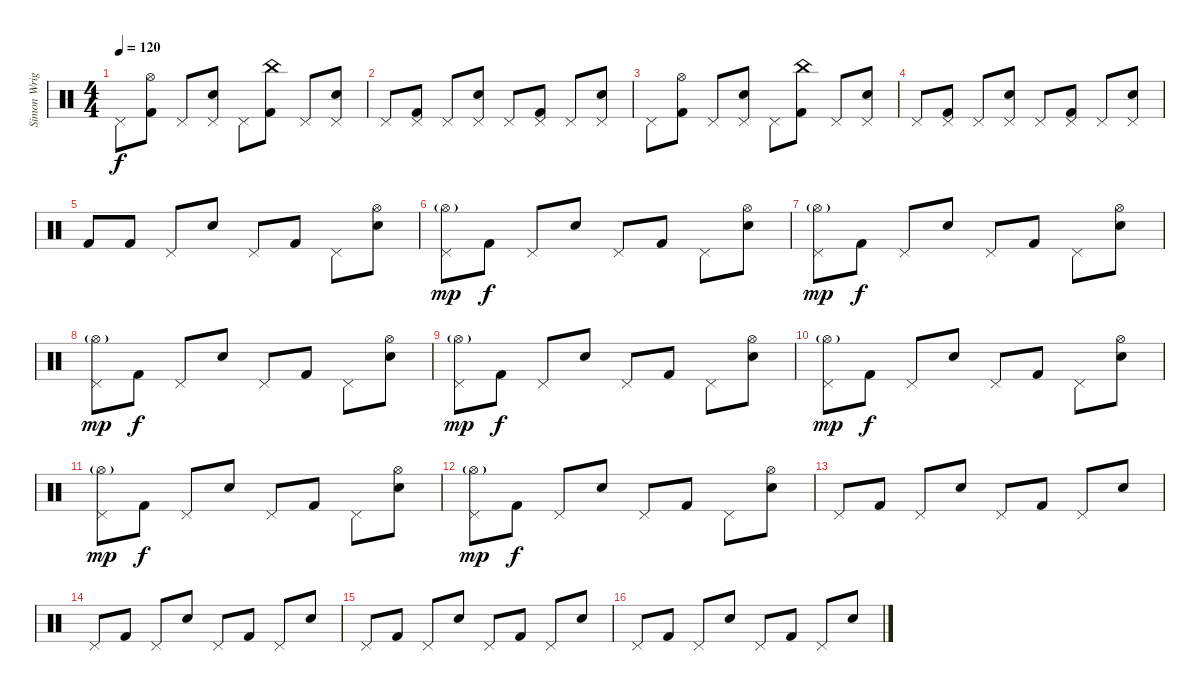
\track ("Simon Wright (i think)" "Simon Wrig") {instrument percussion}
\staff {score}
\articulation defaults
\ts (4 4)
\tempo 120
\clef neutral
\ks c "Pedal Hi-Hat (hit)".8{dy f}
("Kick (hit) 2" "Hi-Hat (open)").8 "Pedal Hi-Hat (hit)".8 ("Snare (hit) 2" "Pedal Hi-Hat (hit)").8 "Pedal Hi-Hat (hit)".8 ("Kick (hit) 2" "China (hit)").8 "Pedal Hi-Hat (hit)".8 ("Snare (hit) 2" "Pedal Hi-Hat (hit)").8 |
"Pedal Hi-Hat (hit)".8 ("Kick (hit) 2" "Pedal Hi-Hat (hit)").8 "Pedal Hi-Hat (hit)".8 ("Snare (hit) 2" "Pedal Hi-Hat (hit)").8 "Pedal Hi-Hat (hit)".8 ("Kick (hit) 2" "Pedal Hi-Hat (hit)").8 "Pedal Hi-Hat (hit)".8 ("Snare (hit) 2" "Pedal Hi-Hat (hit)").8 |
"Pedal Hi-Hat (hit)".8 ("Kick (hit) 2" "Hi-Hat (open)").8 "Pedal Hi-Hat (hit)".8 ("Snare (hit) 2" "Pedal Hi-Hat (hit)").8 "Pedal Hi-Hat (hit)".8 ("Kick (hit) 2" "China (hit)").8 "Pedal Hi-Hat (hit)".8 ("Snare (hit) 2" "Pedal Hi-Hat (hit)").8 |
"Pedal Hi-Hat (hit)".8 ("Kick (hit) 2" "Pedal Hi-Hat (hit)").8 "Pedal Hi-Hat (hit)".8 ("Snare (hit) 2" "Pedal Hi-Hat (hit)").8 "Pedal Hi-Hat (hit)".8 ("Kick (hit) 2" "Pedal Hi-Hat (hit)").8 "Pedal Hi-Hat (hit)".8 ("Snare (hit) 2" "Pedal Hi-Hat (hit)").8 |
"Kick (hit) 2".8 "Kick (hit) 2".8 "Pedal Hi-Hat (hit)".8 "Snare (hit) 2".8 "Pedal Hi-Hat (hit)".8 "Kick (hit) 2".8 "Pedal Hi-Hat (hit)".8 ("Snare (hit) 2" "Hi-Hat (open)").8 |
("Pedal Hi-Hat (hit)" "Hi-Hat (open)"{g}).8{dy mp} "Kick (hit) 2".8{dy f} "Pedal Hi-Hat (hit)".8 "Snare (hit) 2".8 "Pedal Hi-Hat (hit)".8 "Kick (hit) 2".8 "Pedal Hi-Hat (hit)".8 ("Snare (hit) 2" "Hi-Hat (open)").8 |
("Pedal Hi-Hat (hit)" "Hi-Hat (open)"{g}).8{dy mp} "Kick (hit) 2".8{dy f} "Pedal Hi-Hat (hit)".8 "Snare (hit) 2".8 "Pedal Hi-Hat (hit)".8 "Kick (hit) 2".8 "Pedal Hi-Hat (hit)".8 ("Snare (hit) 2" "Hi-Hat (open)").8 |
("Pedal Hi-Hat (hit)" "Hi-Hat (open)"{g}).8{dy mp} "Kick (hit) 2".8{dy f} "Pedal Hi-Hat (hit)".8 "Snare (hit) 2".8 "Pedal Hi-Hat (hit)".8 "Kick (hit) 2".8 "Pedal Hi-Hat (hit)".8 ("Snare (hit) 2" "Hi-Hat (open)").8 |
("Pedal Hi-Hat (hit)" "Hi-Hat (open)"{g}).8{dy mp} "Kick (hit) 2".8{dy f} "Pedal Hi-Hat (hit)".8 "Snare (hit) 2".8 "Pedal Hi-Hat (hit)".8 "Kick (hit) 2".8 "Pedal Hi-Hat (hit)".8 ("Snare (hit) 2" "Hi-Hat (open)").8 |
("Pedal Hi-Hat (hit)" "Hi-Hat (open)"{g}).8{dy mp} "Kick (hit) 2".8{dy f} "Pedal Hi-Hat (hit)".8 "Snare (hit) 2".8 "Pedal Hi-Hat (hit)".8 "Kick (hit) 2".8 "Pedal Hi-Hat (hit)".8 ("Snare (hit) 2" "Hi-Hat (open)").8 |
("Pedal Hi-Hat (hit)" "Hi-Hat (open)"{g}).8{dy mp} "Kick (hit) 2".8{dy f} "Pedal Hi-Hat (hit)".8 "Snare (hit) 2".8 "Pedal Hi-Hat (hit)".8 "Kick (hit) 2".8 "Pedal Hi-Hat (hit)".8 ("Snare (hit) 2" "Hi-Hat (open)").8 |
("Pedal Hi-Hat (hit)" "Hi-Hat (open)"{g}).8{dy mp} "Kick (hit) 2".8{dy f} "Pedal Hi-Hat (hit)".8 "Snare (hit) 2".8 "Pedal Hi-Hat (hit)".8 "Kick (hit) 2".8 "Pedal Hi-Hat (hit)".8 ("Snare (hit) 2" "Hi-Hat (open)").8 |
"Pedal Hi-Hat (hit)".8 "Kick (hit) 2".8 "Pedal Hi-Hat (hit)".8 "Snare (hit) 2".8 "Pedal Hi-Hat (hit)".8 "Kick (hit) 2".8 "Pedal Hi-Hat (hit)".8 "Snare (hit) 2".8 |
"Pedal Hi-Hat (hit)".8 "Kick (hit) 2".8 "Pedal Hi-Hat (hit)".8 "Snare (hit) 2".8 "Pedal Hi-Hat (hit)".8 "Kick (hit) 2".8 "Pedal Hi-Hat (hit)".8 "Snare (hit) 2".8 |
"Pedal Hi-Hat (hit)".8 "Kick (hit) 2".8 "Pedal Hi-Hat (hit)".8 "Snare (hit) 2".8 "Pedal Hi-Hat (hit)".8 "Kick (hit) 2".8 "Pedal Hi-Hat (hit)".8 "Snare (hit) 2".8 |
"Pedal Hi-Hat (hit)".8 "Kick (hit) 2".8 "Pedal Hi-Hat (hit)".8 "Snare (hit) 2".8 "Pedal Hi-Hat (hit)".8 "Kick (hit) 2".8 "Pedal Hi-Hat (hit)".8 "Snare (hit) 2".8
